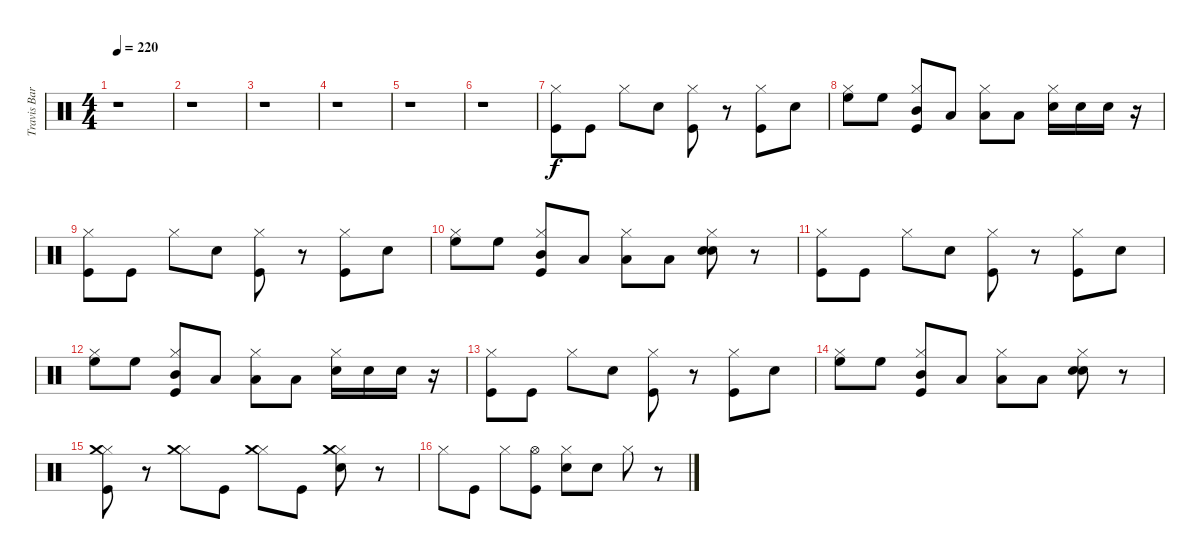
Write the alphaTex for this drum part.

\track ("Travis Barker (Drums)" "Travis Bar") {instrument percussion}
\staff {score}
\articulation defaults
\ts (4 4)
\tempo 220
\clef neutral
\ks c
r.1{dy f} |
r.1 |
r.1 |
r.1 |
r.1 |
r.1 |
("Kick (hit)" "Hi-Hat (closed)").8 "Kick (hit)".8 "Hi-Hat (closed)".8 "Electric Snare (hit)".8 ("Kick (hit)" "Hi-Hat (closed)").8 r.8 ("Kick (hit)" "Hi-Hat (closed)").8 "Electric Snare (hit)".8 |
("High Floor Tom (hit)" "Hi-Hat (closed)").8 "High Floor Tom (hit)".8 ("Kick (hit)" "Mid Tom (hit)" "Hi-Hat (closed)").8 "Low Tom (hit)".8 ("Low Floor Tom (hit)" "Hi-Hat (closed)").8 "Low Floor Tom (hit)".8 ("Electric Snare (hit)" "Hi-Hat (closed)").16 "Electric Snare (hit)".16 "Electric Snare (hit)".16 r.16 |
("Kick (hit)" "Hi-Hat (closed)").8 "Kick (hit)".8 "Hi-Hat (closed)".8 "Electric Snare (hit)".8 ("Kick (hit)" "Hi-Hat (closed)").8 r.8 ("Kick (hit)" "Hi-Hat (closed)").8 "Electric Snare (hit)".8 |
("High Floor Tom (hit)" "Hi-Hat (closed)").8 "High Floor Tom (hit)".8 ("Kick (hit)" "Mid Tom (hit)" "Hi-Hat (closed)").8 "Low Tom (hit)".8 ("Low Floor Tom (hit)" "Hi-Hat (closed)").8 "Low Floor Tom (hit)".8 ("Electric Snare (hit)" "Electric Snare (hit)" "Hi-Hat (closed)").8 r.8 |
("Kick (hit)" "Hi-Hat (closed)").8 "Kick (hit)".8 "Hi-Hat (closed)".8 "Electric Snare (hit)".8 ("Kick (hit)" "Hi-Hat (closed)").8 r.8 ("Kick (hit)" "Hi-Hat (closed)").8 "Electric Snare (hit)".8 |
("High Floor Tom (hit)" "Hi-Hat (closed)").8 "High Floor Tom (hit)".8 ("Kick (hit)" "Mid Tom (hit)" "Hi-Hat (closed)").8 "Low Tom (hit)".8 ("Low Floor Tom (hit)" "Hi-Hat (closed)").8 "Low Floor Tom (hit)".8 ("Electric Snare (hit)" "Hi-Hat (closed)").16 "Electric Snare (hit)".16 "Electric Snare (hit)".16 r.16 |
("Kick (hit)" "Hi-Hat (closed)").8 "Kick (hit)".8 "Hi-Hat (closed)".8 "Electric Snare (hit)".8 ("Kick (hit)" "Hi-Hat (closed)").8 r.8 ("Kick (hit)" "Hi-Hat (closed)").8 "Electric Snare (hit)".8 |
("High Floor Tom (hit)" "Hi-Hat (closed)").8 "High Floor Tom (hit)".8 ("Kick (hit)" "Mid Tom (hit)" "Hi-Hat (closed)").8 "Low Tom (hit)".8 ("Low Floor Tom (hit)" "Hi-Hat (closed)").8 "Low Floor Tom (hit)".8 ("Electric Snare (hit)" "Electric Snare (hit)" "Hi-Hat (closed)").8 r.8 |
("Kick (hit)" "Hi-Hat (closed)" "Crash medium (hit)").8 r.8 ("Hi-Hat (closed)" "Crash medium (hit)").8 "Kick (hit)".8 ("Hi-Hat (closed)" "Crash medium (hit)").8 "Kick (hit)".8 ("Electric Snare (hit)" "Hi-Hat (closed)" "Crash medium (hit)").8 r.8 |
"Hi-Hat (closed)".8 "Kick (hit)".8 "Hi-Hat (closed)".8 ("Kick (hit)" "Hi-Hat (open)").8 ("Electric Snare (hit)" "Hi-Hat (closed)").8 "Electric Snare (hit)".8 "Hi-Hat (closed)".8 r.8
